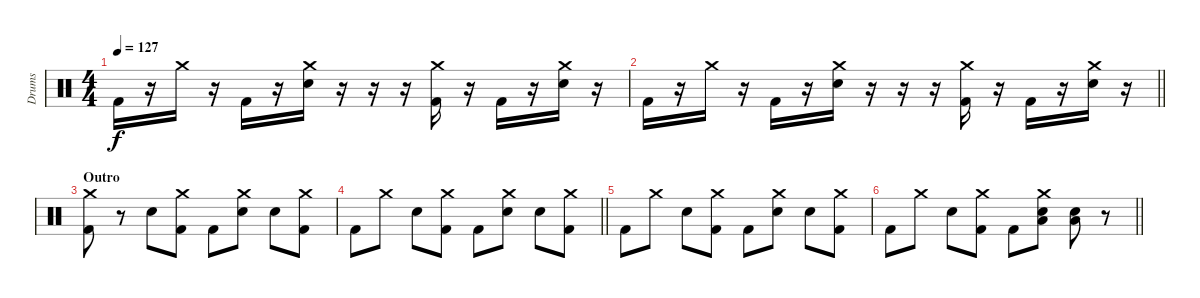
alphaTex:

\track ("Drums" "Drums") {instrument percussion}
\staff {score}
\articulation defaults
\ts (4 4)
\tempo 127
\clef neutral
\ks c "Kick (hit) 2".16{dy f}
r.16 "Crash medium (hit)".16 r.16 "Kick (hit) 2".16 r.16 ("Crash medium (hit)" "Electric Snare (hit)").16 r.16 r.16 r.16 ("Crash medium (hit)" "Kick (hit) 2").16 r.16 "Kick (hit) 2".16 r.16 ("Crash medium (hit)" "Electric Snare (hit)").16 r.16 |
\barLineRight lightlight "Kick (hit) 2".16
r.16 "Crash medium (hit)".16 r.16 "Kick (hit) 2".16 r.16 ("Crash medium (hit)" "Electric Snare (hit)").16 r.16 r.16 r.16 ("Crash medium (hit)" "Kick (hit) 2").16 r.16 "Kick (hit) 2".16 r.16 ("Crash medium (hit)" "Electric Snare (hit)").16 r.16 |
\section ("" "Outro")
("Crash medium (hit)" "Kick (hit) 2").8 r.8 "Electric Snare (hit)".8 ("Crash medium (hit)" "Kick (hit) 2").8 "Kick (hit) 2".8 ("Crash medium (hit)" "Electric Snare (hit)").8 "Electric Snare (hit)".8 ("Crash medium (hit)" "Kick (hit) 2").8 |
\barLineRight lightlight "Kick (hit) 2".8 "Crash medium (hit)".8 "Electric Snare (hit)".8
("Crash medium (hit)" "Kick (hit) 2").8 "Kick (hit) 2".8 ("Crash medium (hit)" "Electric Snare (hit)").8 "Electric Snare (hit)".8 ("Crash medium (hit)" "Kick (hit) 2").8 |
"Kick (hit) 2".8 "Crash medium (hit)".8 "Electric Snare (hit)".8 ("Crash medium (hit)" "Kick (hit) 2").8 "Kick (hit) 2".8 ("Crash medium (hit)" "Electric Snare (hit)").8 "Electric Snare (hit)".8 ("Crash medium (hit)" "Kick (hit) 2").8 |
\barLineRight lightlight "Kick (hit) 2".8 "Crash medium (hit)".8 "Electric Snare (hit)".8
("Crash medium (hit)" "Kick (hit) 2").8 "Kick (hit) 2".8 ("Low Floor Tom (hit)" "Crash medium (hit)" "Electric Snare (hit)").8 ("Low Floor Tom (hit)" "Electric Snare (hit)").8 r.8
